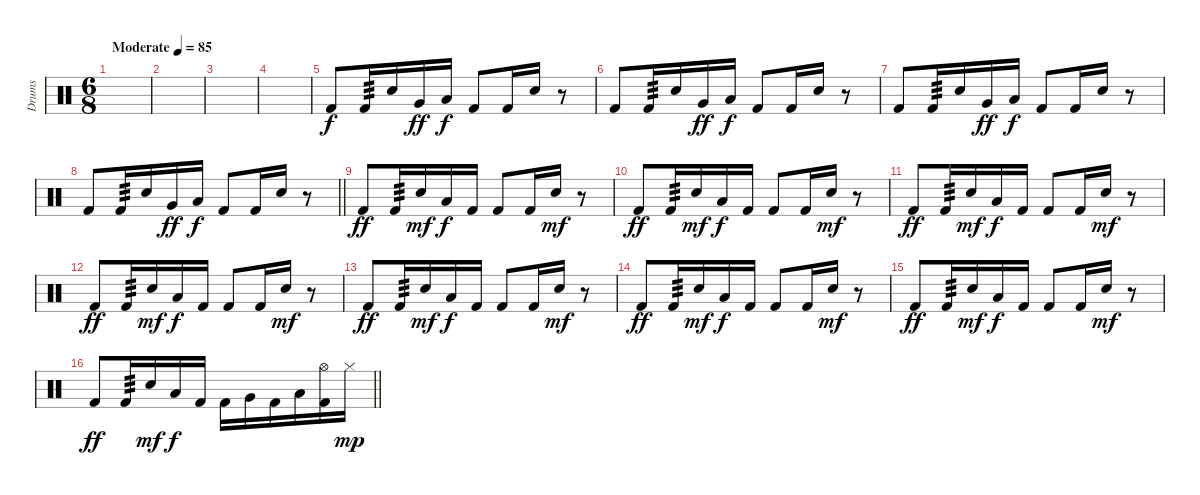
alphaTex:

\track ("Drums" "Drums") {instrument percussion}
\staff {score}
\articulation defaults
\ts (6 8)
\tempo (85 "Moderate")
\clef neutral
\ks c
|
|
|
|
"Kick (hit) 2".8 "Kick (hit) 2".16{tp 3} "Snare (hit) 2".16 "Very Low Tom (hit)".16{dy ff} "Low Floor Tom (hit)".16{dy f} "Kick (hit) 2".8 "Kick (hit) 2".16 "Snare (hit) 2".16 r.8 |
"Kick (hit) 2".8 "Kick (hit) 2".16{tp 3} "Snare (hit) 2".16 "Very Low Tom (hit)".16{dy ff} "Low Floor Tom (hit)".16{dy f} "Kick (hit) 2".8 "Kick (hit) 2".16 "Snare (hit) 2".16 r.8 |
"Kick (hit) 2".8 "Kick (hit) 2".16{tp 3} "Snare (hit) 2".16 "Very Low Tom (hit)".16{dy ff} "Low Floor Tom (hit)".16{dy f} "Kick (hit) 2".8 "Kick (hit) 2".16 "Snare (hit) 2".16 r.8 |
\barLineRight lightlight "Kick (hit) 2".8 "Kick (hit) 2".16{tp 3} "Snare (hit) 2".16 "Very Low Tom (hit)".16{dy ff} "Low Floor Tom (hit)".16{dy f} "Kick (hit) 2".8 "Kick (hit) 2".16 "Snare (hit) 2".16
r.8 |
\section ("" "")
"Kick (hit) 2".8{dy ff} "Kick (hit) 2".16{tp 3} "Snare (hit) 2".16{dy mf} "Low Floor Tom (hit)".16{dy f} "Kick (hit) 2".16 "Kick (hit) 2".8 "Kick (hit) 2".16 "Snare (hit) 2".16{dy mf} r.8 |
"Kick (hit) 2".8{dy ff} "Kick (hit) 2".16{tp 3} "Snare (hit) 2".16{dy mf} "Low Floor Tom (hit)".16{dy f} "Kick (hit) 2".16 "Kick (hit) 2".8 "Kick (hit) 2".16 "Snare (hit) 2".16{dy mf} r.8 |
"Kick (hit) 2".8{dy ff} "Kick (hit) 2".16{tp 3} "Snare (hit) 2".16{dy mf} "Low Floor Tom (hit)".16{dy f} "Kick (hit) 2".16 "Kick (hit) 2".8 "Kick (hit) 2".16 "Snare (hit) 2".16{dy mf} r.8 |
"Kick (hit) 2".8{dy ff} "Kick (hit) 2".16{tp 3} "Snare (hit) 2".16{dy mf} "Low Floor Tom (hit)".16{dy f} "Kick (hit) 2".16 "Kick (hit) 2".8 "Kick (hit) 2".16 "Snare (hit) 2".16{dy mf} r.8 |
"Kick (hit) 2".8{dy ff} "Kick (hit) 2".16{tp 3} "Snare (hit) 2".16{dy mf} "Low Floor Tom (hit)".16{dy f} "Kick (hit) 2".16 "Kick (hit) 2".8 "Kick (hit) 2".16 "Snare (hit) 2".16{dy mf} r.8 |
"Kick (hit) 2".8{dy ff} "Kick (hit) 2".16{tp 3} "Snare (hit) 2".16{dy mf} "Low Floor Tom (hit)".16{dy f} "Kick (hit) 2".16 "Kick (hit) 2".8 "Kick (hit) 2".16 "Snare (hit) 2".16{dy mf} r.8 |
"Kick (hit) 2".8{dy ff} "Kick (hit) 2".16{tp 3} "Snare (hit) 2".16{dy mf} "Low Floor Tom (hit)".16{dy f} "Kick (hit) 2".16 "Kick (hit) 2".8 "Kick (hit) 2".16 "Snare (hit) 2".16{dy mf} r.8 |
\barLineRight lightlight "Kick (hit) 2".8{dy ff} "Kick (hit) 2".16{tp 3} "Snare (hit) 2".16{dy mf} "Low Floor Tom (hit)".16{dy f} "Kick (hit) 2".16 "Kick (hit) 2".16 "Very Low Tom (hit)".16 "Kick (hit) 2".16 "Low Floor Tom (hit)".16
("Hi-Hat (open)" "Kick (hit) 2").16 "Hi-Hat (closed)".16{dy mp}
